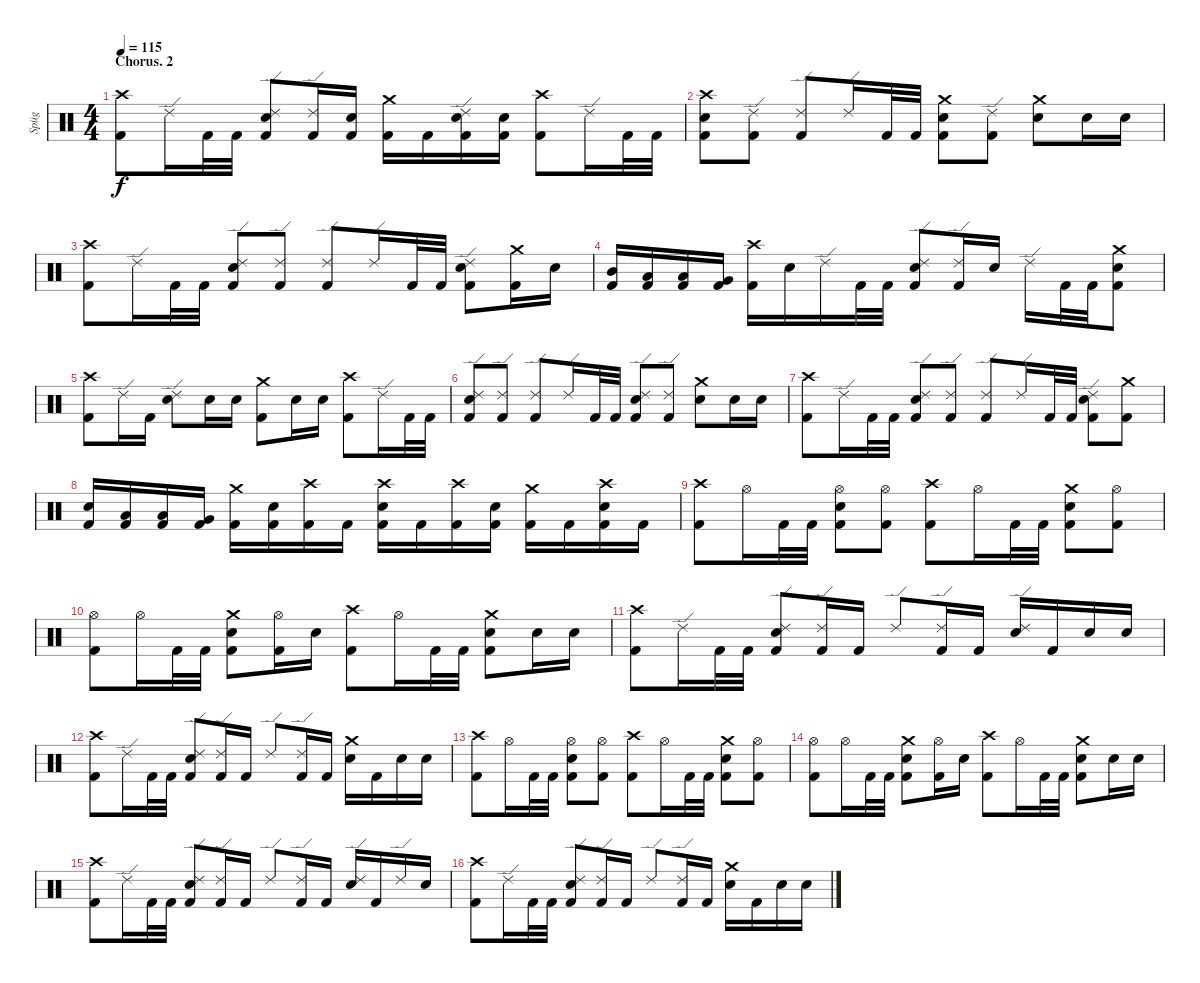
\track ("Spüg" "Spüg") {instrument percussion}
\staff {score}
\articulation defaults
\ts (4 4)
\section ("" "Chorus. 2")
\tempo 115
\clef neutral
\ks c
("Crash high (hit)" "Kick (hit) 2").8{dy f} "Ride (edge) 2".16 "Kick (hit) 2".32 "Kick (hit) 2".32 ("Ride (edge) 2" "Electric Snare (hit)" "Kick (hit) 2").8 ("Ride (edge) 2" "Kick (hit) 2").16 ("Electric Snare (hit)" "Kick (hit) 2").16 ("Crash medium (hit)" "Kick (hit) 2").16 "Kick (hit) 2".16 ("Ride (edge) 2" "Electric Snare (hit)" "Kick (hit) 2").16 ("Electric Snare (hit)" "Kick (hit) 2").16 ("Crash high (hit)" "Kick (hit) 2").8 "Ride (edge) 2".16 "Kick (hit) 2".32 "Kick (hit) 2".32 |
("Crash high (hit)" "Electric Snare (hit)" "Kick (hit) 2").8 ("Ride (edge) 2" "Kick (hit) 2").8 ("Ride (edge) 2" "Kick (hit) 2").8 "Ride (edge) 2".16 "Kick (hit) 2".32 "Kick (hit) 2".32 ("Crash medium (hit)" "Electric Snare (hit)" "Kick (hit) 2").8 ("Ride (edge) 2" "Kick (hit) 2").8 ("Crash medium (hit)" "Electric Snare (hit)").8 "Electric Snare (hit)".16 "Electric Snare (hit)".16 |
("Crash high (hit)" "Kick (hit) 2").8 "Ride (edge) 2".16 "Kick (hit) 2".32 "Kick (hit) 2".32 ("Ride (edge) 2" "Electric Snare (hit)" "Kick (hit) 2").8 ("Ride (edge) 2" "Kick (hit) 2").8 ("Ride (edge) 2" "Kick (hit) 2").8 "Ride (edge) 2".16 "Kick (hit) 2".32 "Kick (hit) 2".32 ("Ride (edge) 2" "Electric Snare (hit)" "Kick (hit) 2").8 ("Crash medium (hit)" "Kick (hit) 2").16 "Electric Snare (hit)".16 |
("Mid Tom (hit)" "Kick (hit) 2").16 ("Low Tom (hit)" "Kick (hit) 2").16 ("Low Tom (hit)" "Kick (hit) 2").16 ("Very Low Tom (hit)" "Kick (hit) 2").16 ("Crash high (hit)" "Kick (hit) 2").16 "Electric Snare (hit)".16 "Ride (edge) 2".16 "Kick (hit) 2".32 "Kick (hit) 2".32 ("Ride (edge) 2" "Electric Snare (hit)" "Kick (hit) 2").8 ("Ride (edge) 2" "Kick (hit) 2").16 "Electric Snare (hit)".16 "Ride (edge) 2".16 "Kick (hit) 2".32 "Kick (hit) 2".32 ("Crash medium (hit)" "Electric Snare (hit)" "Kick (hit) 2").8 |
("Crash high (hit)" "Kick (hit) 2").8 "Ride (edge) 2".16 "Kick (hit) 2".16 ("Ride (edge) 2" "Electric Snare (hit)").8 "Electric Snare (hit)".16 "Electric Snare (hit)".16 ("Crash medium (hit)" "Kick (hit) 2").8 "Electric Snare (hit)".16 "Electric Snare (hit)".16 ("Crash high (hit)" "Kick (hit) 2").8 "Ride (edge) 2".16 "Kick (hit) 2".32 "Kick (hit) 2".32 |
("Ride (edge) 2" "Electric Snare (hit)" "Kick (hit) 2").8 ("Ride (edge) 2" "Kick (hit) 2").8 ("Ride (edge) 2" "Kick (hit) 2").8 "Ride (edge) 2".16 "Kick (hit) 2".32 "Kick (hit) 2".32 ("Ride (edge) 2" "Electric Snare (hit)" "Kick (hit) 2").8 ("Ride (edge) 2" "Kick (hit) 2").8 ("Crash medium (hit)" "Electric Snare (hit)").8 "Electric Snare (hit)".16 "Electric Snare (hit)".16 |
("Crash high (hit)" "Kick (hit) 2").8 "Ride (edge) 2".16 "Kick (hit) 2".32 "Kick (hit) 2".32 ("Ride (edge) 2" "Electric Snare (hit)" "Kick (hit) 2").8 ("Ride (edge) 2" "Kick (hit) 2").8 ("Ride (edge) 2" "Kick (hit) 2").8 "Ride (edge) 2".16 "Kick (hit) 2".32 "Kick (hit) 2".32 ("Ride (edge) 2" "Electric Snare (hit)" "Kick (hit) 2").8 ("Crash medium (hit)" "Kick (hit) 2").8 |
("Electric Snare (hit)" "Kick (hit) 2").16 ("Low Tom (hit)" "Kick (hit) 2").16 ("Low Tom (hit)" "Kick (hit) 2").16 ("Very Low Tom (hit)" "Kick (hit) 2").16 ("Crash medium (hit)" "Kick (hit) 2").16 ("Electric Snare (hit)" "Kick (hit) 2").16 ("Crash high (hit)" "Kick (hit) 2").16 "Kick (hit) 2".16 ("Crash high (hit)" "Electric Snare (hit)" "Kick (hit) 2").16 "Kick (hit) 2".16 ("Crash high (hit)" "Kick (hit) 2").16 ("Electric Snare (hit)" "Kick (hit) 2").16 ("Crash medium (hit)" "Kick (hit) 2").16 "Kick (hit) 2".16 ("Crash high (hit)" "Electric Snare (hit)" "Kick (hit) 2").16 "Kick (hit) 2".16 |
("Crash high (hit)" "Kick (hit) 2").8 "Hi-Hat (open)".16 "Kick (hit) 2".32 "Kick (hit) 2".32 ("Hi-Hat (open)" "Electric Snare (hit)" "Kick (hit) 2").8 ("Hi-Hat (open)" "Kick (hit) 2").8 ("Crash high (hit)" "Kick (hit) 2").8 "Hi-Hat (open)".16 "Kick (hit) 2".32 "Kick (hit) 2".32 ("Crash medium (hit)" "Electric Snare (hit)" "Kick (hit) 2").8 ("Hi-Hat (open)" "Kick (hit) 2").8 |
("Hi-Hat (open)" "Kick (hit) 2").8 "Hi-Hat (open)".16 "Kick (hit) 2".32 "Kick (hit) 2".32 ("Crash medium (hit)" "Electric Snare (hit)" "Kick (hit) 2").8 ("Hi-Hat (open)" "Kick (hit) 2").16 "Electric Snare (hit)".16 ("Crash high (hit)" "Kick (hit) 2").8 "Hi-Hat (open)".16 "Kick (hit) 2".32 "Kick (hit) 2".32 ("Crash medium (hit)" "Electric Snare (hit)" "Kick (hit) 2").8 "Electric Snare (hit)".16 "Electric Snare (hit)".16 |
("Crash high (hit)" "Kick (hit) 2").8 "Ride (edge) 2".16 "Kick (hit) 2".32 "Kick (hit) 2".32 ("Ride (edge) 2" "Electric Snare (hit)" "Kick (hit) 2").8 ("Ride (edge) 2" "Kick (hit) 2").16 "Kick (hit) 2".16 "Ride (edge) 2".8 ("Ride (edge) 2" "Kick (hit) 2").16 "Kick (hit) 2".16 ("Ride (edge) 2" "Electric Snare (hit)").16 "Kick (hit) 2".16 "Electric Snare (hit)".16 "Electric Snare (hit)".16 |
("Crash high (hit)" "Kick (hit) 2").8 "Ride (edge) 2".16 "Kick (hit) 2".32 "Kick (hit) 2".32 ("Ride (edge) 2" "Electric Snare (hit)" "Kick (hit) 2").8 ("Ride (edge) 2" "Kick (hit) 2").16 "Kick (hit) 2".16 "Ride (edge) 2".8 ("Ride (edge) 2" "Kick (hit) 2").16 "Kick (hit) 2".16 ("Crash medium (hit)" "Electric Snare (hit)").16 "Kick (hit) 2".16 "Electric Snare (hit)".16 "Electric Snare (hit)".16 |
("Crash high (hit)" "Kick (hit) 2").8 "Hi-Hat (open)".16 "Kick (hit) 2".32 "Kick (hit) 2".32 ("Hi-Hat (open)" "Electric Snare (hit)" "Kick (hit) 2").8 ("Hi-Hat (open)" "Kick (hit) 2").8 ("Crash high (hit)" "Kick (hit) 2").8 "Hi-Hat (open)".16 "Kick (hit) 2".32 "Kick (hit) 2".32 ("Crash medium (hit)" "Electric Snare (hit)" "Kick (hit) 2").8 ("Hi-Hat (open)" "Kick (hit) 2").8 |
("Hi-Hat (open)" "Kick (hit) 2").8 "Hi-Hat (open)".16 "Kick (hit) 2".32 "Kick (hit) 2".32 ("Crash medium (hit)" "Electric Snare (hit)" "Kick (hit) 2").8 ("Hi-Hat (open)" "Kick (hit) 2").16 "Electric Snare (hit)".16 ("Crash high (hit)" "Kick (hit) 2").8 "Hi-Hat (open)".16 "Kick (hit) 2".32 "Kick (hit) 2".32 ("Crash medium (hit)" "Electric Snare (hit)" "Kick (hit) 2").8 "Electric Snare (hit)".16 "Electric Snare (hit)".16 |
("Crash high (hit)" "Kick (hit) 2").8 "Ride (edge) 2".16 "Kick (hit) 2".32 "Kick (hit) 2".32 ("Ride (edge) 2" "Electric Snare (hit)" "Kick (hit) 2").8 ("Ride (edge) 2" "Kick (hit) 2").16 "Kick (hit) 2".16 "Ride (edge) 2".8 ("Ride (edge) 2" "Kick (hit) 2").16 "Kick (hit) 2".16 ("Ride (edge) 2" "Electric Snare (hit)").16 "Kick (hit) 2".16 "Ride (edge) 2".16 "Electric Snare (hit)".16 |
("Crash high (hit)" "Kick (hit) 2").8 "Ride (edge) 2".16 "Kick (hit) 2".32 "Kick (hit) 2".32 ("Ride (edge) 2" "Electric Snare (hit)" "Kick (hit) 2").8 ("Ride (edge) 2" "Kick (hit) 2").16 "Kick (hit) 2".16 "Ride (edge) 2".8 ("Ride (edge) 2" "Kick (hit) 2").16 "Kick (hit) 2".16 ("Crash medium (hit)" "Electric Snare (hit)").16 "Kick (hit) 2".16 "Electric Snare (hit)".16 "Electric Snare (hit)".16
